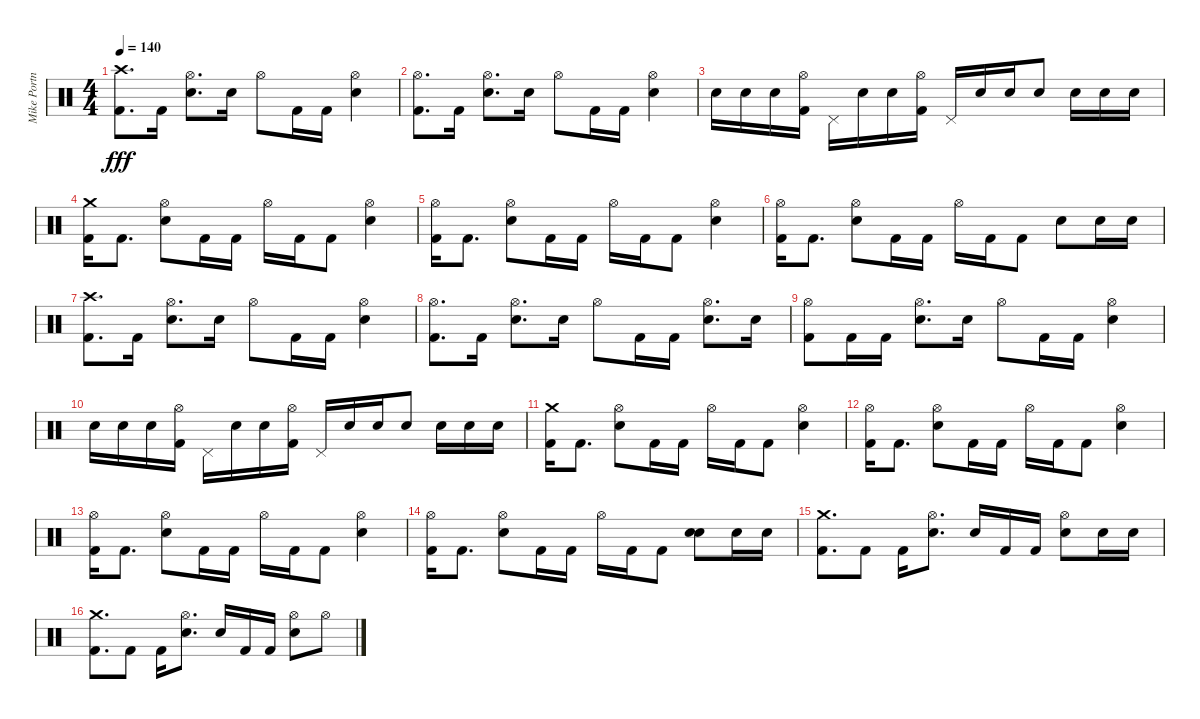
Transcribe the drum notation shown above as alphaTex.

\track ("Mike Portnoy" "Mike Portn") {instrument percussion}
\staff {score}
\articulation defaults
\ts (4 4)
\tempo 140
\clef neutral
\ks c
("Crash high (hit)" "Kick (hit) 2").8{d dy fff} "Kick (hit) 2".16 ("Hi-Hat (open)" "Snare (hit) 2").8{d} "Snare (hit) 2".16 "Hi-Hat (open)".8 "Kick (hit) 2".16 "Kick (hit) 2".16 ("Hi-Hat (open)" "Snare (hit) 2").4 |
("Hi-Hat (open)" "Kick (hit) 2").8{d} "Kick (hit) 2".16 ("Hi-Hat (open)" "Snare (hit) 2").8{d} "Snare (hit) 2".16 "Hi-Hat (open)".8 "Kick (hit) 2".16 "Kick (hit) 2".16 ("Hi-Hat (open)" "Snare (hit) 2").4 |
"Snare (hit) 2".16 "Snare (hit) 2".16 "Snare (hit) 2".16 ("Hi-Hat (open)" "Kick (hit) 2").16 "Pedal Hi-Hat (hit)".16 "Snare (hit) 2".16 "Snare (hit) 2".16 ("Hi-Hat (open)" "Kick (hit) 2").16 "Pedal Hi-Hat (hit)".16 "Snare (hit) 2".16 "Snare (hit) 2".16 "Snare (hit) 2".8 "Snare (hit) 2".16 "Snare (hit) 2".16 "Snare (hit) 2".16 |
("Crash medium (hit)" "Kick (hit) 2").16 "Kick (hit) 2".8{d} ("Hi-Hat (open)" "Snare (hit) 2").8 "Kick (hit) 2".16 "Kick (hit) 2".16 "Hi-Hat (open)".16 "Kick (hit) 2".16 "Kick (hit) 2".8 ("Hi-Hat (open)" "Snare (hit) 2").4 |
("Hi-Hat (open)" "Kick (hit) 2").16 "Kick (hit) 2".8{d} ("Hi-Hat (open)" "Snare (hit) 2").8 "Kick (hit) 2".16 "Kick (hit) 2".16 "Hi-Hat (open)".16 "Kick (hit) 2".16 "Kick (hit) 2".8 ("Hi-Hat (open)" "Snare (hit) 2").4 |
("Hi-Hat (open)" "Kick (hit) 2").16 "Kick (hit) 2".8{d} ("Hi-Hat (open)" "Snare (hit) 2").8 "Kick (hit) 2".16 "Kick (hit) 2".16 "Hi-Hat (open)".16 "Kick (hit) 2".16 "Kick (hit) 2".8 "Snare (hit) 2".8 "Snare (hit) 2".16 "Snare (hit) 2".16 |
("Crash high (hit)" "Kick (hit) 2").8{d} "Kick (hit) 2".16 ("Hi-Hat (open)" "Snare (hit) 2").8{d} "Snare (hit) 2".16 "Hi-Hat (open)".8 "Kick (hit) 2".16 "Kick (hit) 2".16 ("Hi-Hat (open)" "Snare (hit) 2").4 |
("Hi-Hat (open)" "Kick (hit) 2").8{d} "Kick (hit) 2".16 ("Hi-Hat (open)" "Snare (hit) 2").8{d} "Snare (hit) 2".16 "Hi-Hat (open)".8 "Kick (hit) 2".16 "Kick (hit) 2".16 ("Hi-Hat (open)" "Snare (hit) 2").8{d} "Snare (hit) 2".16 |
("Hi-Hat (open)" "Kick (hit) 2").8 "Kick (hit) 2".16 "Kick (hit) 2".16 ("Hi-Hat (open)" "Snare (hit) 2").8{d} "Snare (hit) 2".16 "Hi-Hat (open)".8 "Kick (hit) 2".16 "Kick (hit) 2".16 ("Hi-Hat (open)" "Snare (hit) 2").4 |
"Snare (hit) 2".16 "Snare (hit) 2".16 "Snare (hit) 2".16 ("Hi-Hat (open)" "Kick (hit) 2").16 "Pedal Hi-Hat (hit)".16 "Snare (hit) 2".16 "Snare (hit) 2".16 ("Hi-Hat (open)" "Kick (hit) 2").16 "Pedal Hi-Hat (hit)".16 "Snare (hit) 2".16 "Snare (hit) 2".16 "Snare (hit) 2".8 "Snare (hit) 2".16 "Snare (hit) 2".16 "Snare (hit) 2".16 |
("Crash medium (hit)" "Kick (hit) 2").16 "Kick (hit) 2".8{d} ("Hi-Hat (open)" "Snare (hit) 2").8 "Kick (hit) 2".16 "Kick (hit) 2".16 "Hi-Hat (open)".16 "Kick (hit) 2".16 "Kick (hit) 2".8 ("Hi-Hat (open)" "Snare (hit) 2").4 |
("Hi-Hat (open)" "Kick (hit) 2").16 "Kick (hit) 2".8{d} ("Hi-Hat (open)" "Snare (hit) 2").8 "Kick (hit) 2".16 "Kick (hit) 2".16 "Hi-Hat (open)".16 "Kick (hit) 2".16 "Kick (hit) 2".8 ("Hi-Hat (open)" "Snare (hit) 2").4 |
("Hi-Hat (open)" "Kick (hit) 2").16 "Kick (hit) 2".8{d} ("Hi-Hat (open)" "Snare (hit) 2").8 "Kick (hit) 2".16 "Kick (hit) 2".16 "Hi-Hat (open)".16 "Kick (hit) 2".16 "Kick (hit) 2".8 ("Hi-Hat (open)" "Snare (hit) 2").4 |
("Hi-Hat (open)" "Kick (hit) 2").16 "Kick (hit) 2".8{d} ("Hi-Hat (open)" "Snare (hit) 2").8 "Kick (hit) 2".16 "Kick (hit) 2".16 "Hi-Hat (open)".16 "Kick (hit) 2".16 "Kick (hit) 2".8 ("Snare (hit) 2" "Snare (hit) 2").8 "Snare (hit) 2".16 "Snare (hit) 2".16 |
("Crash medium (hit)" "Kick (hit) 2").8{d} "Kick (hit) 2".8 "Kick (hit) 2".16 ("Hi-Hat (open)" "Snare (hit) 2").8{d} "Snare (hit) 2".16 "Kick (hit) 2".16 "Kick (hit) 2".16 ("Hi-Hat (open)" "Snare (hit) 2").8 "Snare (hit) 2".16 "Snare (hit) 2".16 |
("Crash medium (hit)" "Kick (hit) 2").8{d} "Kick (hit) 2".8 "Kick (hit) 2".16 ("Hi-Hat (open)" "Snare (hit) 2").8{d} "Snare (hit) 2".16 "Kick (hit) 2".16 "Kick (hit) 2".16 ("Hi-Hat (open)" "Snare (hit) 2").8 "Hi-Hat (open)".8
